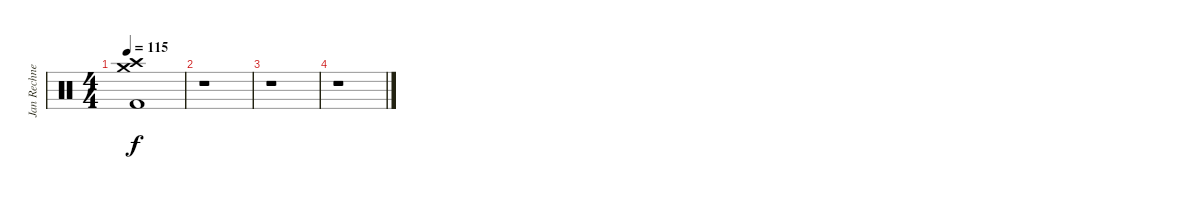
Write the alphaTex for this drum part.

\track ("Jan Rechnerger" "Jan Rechne") {instrument percussion}
\staff {score}
\articulation defaults
\ts (4 4)
\tempo 115
\clef neutral
\ks c
("Crash high (hit)" "Crash medium (hit)" "Kick (hit) 2").1{dy f} |
r.1 |
r.1 |
r.1
